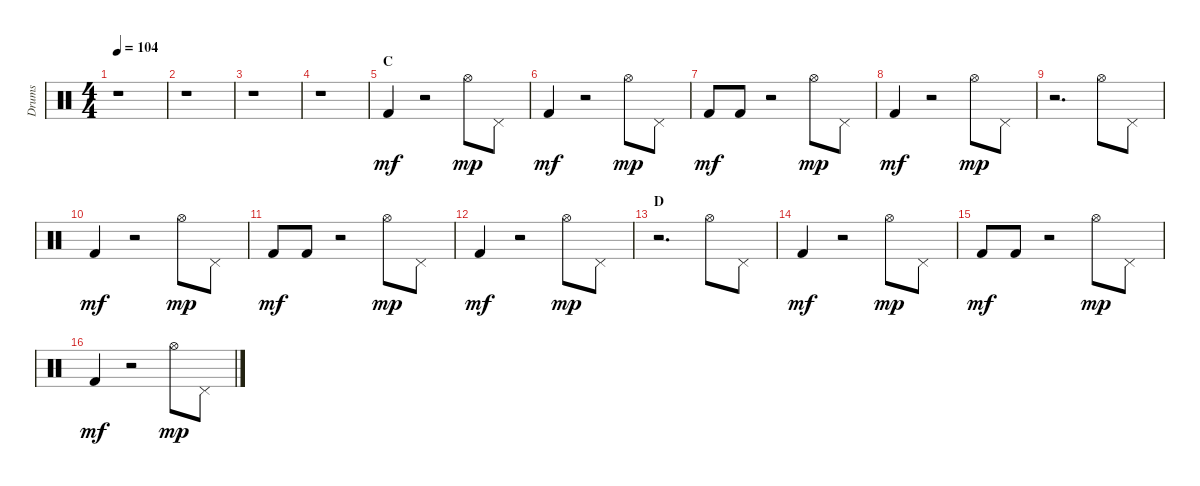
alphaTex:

\track ("Drums" "Drums") {instrument percussion}
\staff {score}
\articulation defaults
\ts (4 4)
\tempo 104
\clef neutral
\ks c
r.1{dy mf} |
r.1 |
r.1 |
r.1 |
\section ("" "C")
"Kick (hit) 2".4 r.2 "Hi-Hat (open)".8{dy mp} "Pedal Hi-Hat (hit)".8 |
"Kick (hit) 2".4{dy mf} r.2 "Hi-Hat (open)".8{dy mp} "Pedal Hi-Hat (hit)".8 |
"Kick (hit) 2".8{dy mf} "Kick (hit) 2".8 r.2 "Hi-Hat (open)".8{dy mp} "Pedal Hi-Hat (hit)".8 |
"Kick (hit) 2".4{dy mf} r.2 "Hi-Hat (open)".8{dy mp} "Pedal Hi-Hat (hit)".8 |
r.2{d} "Hi-Hat (open)".8 "Pedal Hi-Hat (hit)".8 |
"Kick (hit) 2".4{dy mf} r.2 "Hi-Hat (open)".8{dy mp} "Pedal Hi-Hat (hit)".8 |
"Kick (hit) 2".8{dy mf} "Kick (hit) 2".8 r.2 "Hi-Hat (open)".8{dy mp} "Pedal Hi-Hat (hit)".8 |
"Kick (hit) 2".4{dy mf} r.2 "Hi-Hat (open)".8{dy mp} "Pedal Hi-Hat (hit)".8 |
\section ("" "D")
r.2{d} "Hi-Hat (open)".8 "Pedal Hi-Hat (hit)".8 |
"Kick (hit) 2".4{dy mf} r.2 "Hi-Hat (open)".8{dy mp} "Pedal Hi-Hat (hit)".8 |
"Kick (hit) 2".8{dy mf} "Kick (hit) 2".8 r.2 "Hi-Hat (open)".8{dy mp} "Pedal Hi-Hat (hit)".8 |
"Kick (hit) 2".4{dy mf} r.2 "Hi-Hat (open)".8{dy mp} "Pedal Hi-Hat (hit)".8
